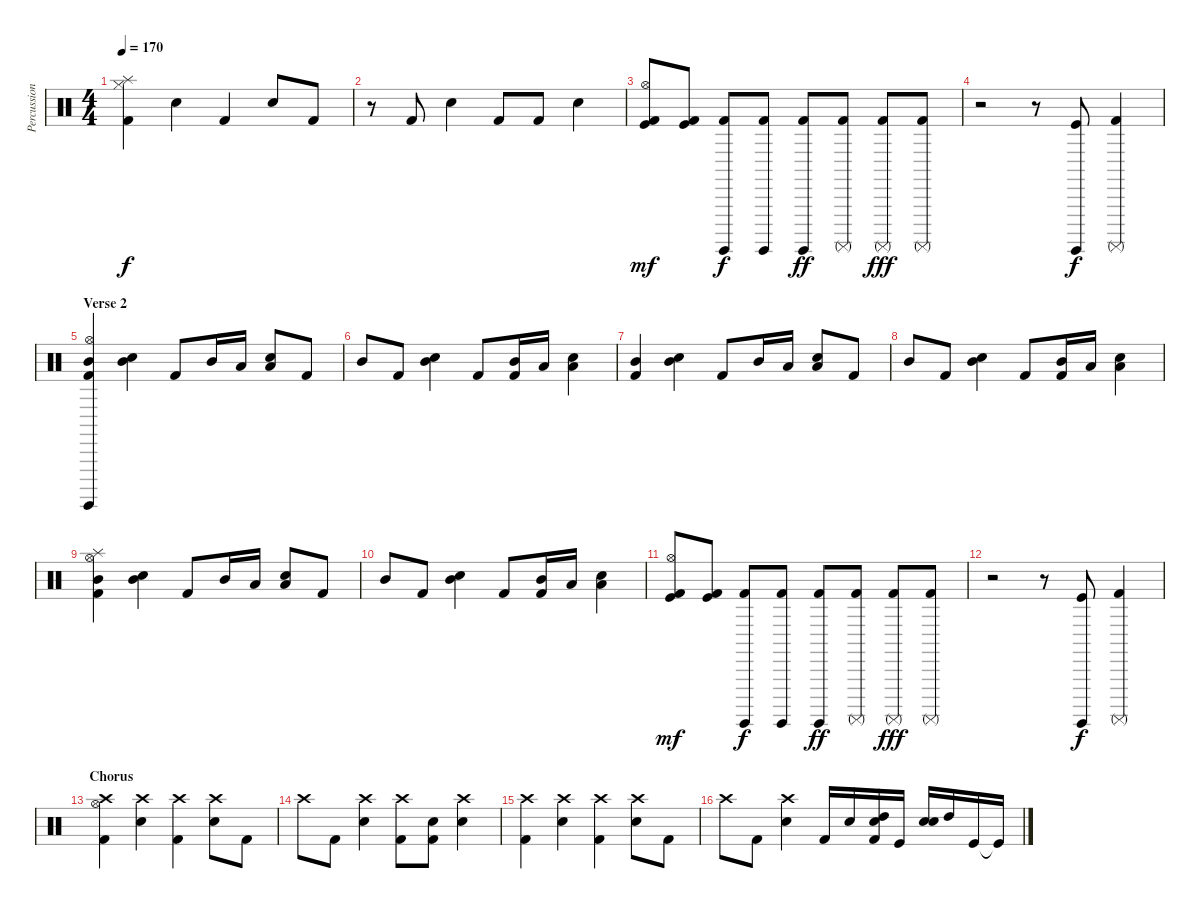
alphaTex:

\track ("Percussion" "Percussion") {instrument percussion}
\staff {score}
\articulation defaults
\ts (4 4)
\tempo 170
\clef neutral
\ks c
("Hi-Hat (closed)"{t} "Splash (hit)"{t} "Kick (hit) 2").4{dy f} "Snare (hit) 2".4 "Kick (hit) 2".4 "Snare (hit) 2".8 "Kick (hit) 2".8 |
r.8 "Kick (hit) 2".8 "Snare (hit) 2".4 "Kick (hit) 2".8 "Kick (hit) 2".8 "Snare (hit) 2".4 |
("Hi-Hat (open)" "Kick (hit)" "Kick (hit) 2").8{dy mf} ("Kick (hit)" "Kick (hit) 2").8 ("Surdo (hit)" "Kick (hit) 2").8{dy f} ("Surdo (hit)" "Kick (hit) 2").8 ("Surdo (hit)" "Kick (hit) 2").8{dy ff} ("Surdo (mute)" "Kick (hit) 2").8 ("Surdo (mute)" "Kick (hit) 2").8{dy fff} ("Surdo (mute)" "Kick (hit) 2").8 |
r.2 r.8 ("Surdo (hit)" "Kick (hit)").8{dy f} ("Surdo (mute)" "Kick (hit) 2").4 |
\section ("" "Verse 2")
("Surdo (hit)" "Mid Tom (hit)" "Hi-Hat (open)" "Kick (hit) 2").4 ("Snare (hit) 2" "Mid Tom (hit)").4 "Kick (hit) 2".8 "Mid Tom (hit)".16 "Low Tom (hit)".16 ("Snare (hit) 2" "Low Floor Tom (hit)").8 "Kick (hit) 2".8 |
"Mid Tom (hit)".8 "Kick (hit) 2".8 ("Snare (hit) 2" "Mid Tom (hit)").4 "Kick (hit) 2".8 ("Mid Tom (hit)" "Kick (hit) 2").16 "Low Tom (hit)".16 ("Snare (hit) 2" "Low Floor Tom (hit)").4 |
("Mid Tom (hit)" "Kick (hit) 2").4 ("Snare (hit) 2" "Mid Tom (hit)").4 "Kick (hit) 2".8 "Mid Tom (hit)".16 "Low Tom (hit)".16 ("Snare (hit) 2" "Low Floor Tom (hit)").8 "Kick (hit) 2".8 |
"Mid Tom (hit)".8 "Kick (hit) 2".8 ("Snare (hit) 2" "Mid Tom (hit)").4 "Kick (hit) 2".8 ("Mid Tom (hit)" "Kick (hit) 2").16 "Low Tom (hit)".16 ("Snare (hit) 2" "Low Floor Tom (hit)").4 |
("Mid Tom (hit)" "Hi-Hat (open)" "Splash (hit)" "Kick (hit) 2").4 ("Snare (hit) 2" "Mid Tom (hit)").4 "Kick (hit) 2".8 "Mid Tom (hit)".16 "Low Tom (hit)".16 ("Snare (hit) 2" "Low Floor Tom (hit)").8 "Kick (hit) 2".8 |
"Mid Tom (hit)".8 "Kick (hit) 2".8 ("Snare (hit) 2" "Mid Tom (hit)").4 "Kick (hit) 2".8 ("Mid Tom (hit)" "Kick (hit) 2").16 "Low Tom (hit)".16 ("Snare (hit) 2" "Low Floor Tom (hit)").4 |
("Hi-Hat (open)" "Kick (hit)" "Kick (hit) 2").8{dy mf} ("Kick (hit)" "Kick (hit) 2").8 ("Surdo (hit)" "Kick (hit) 2").8{dy f} ("Surdo (hit)" "Kick (hit) 2").8 ("Surdo (hit)" "Kick (hit) 2").8{dy ff} ("Surdo (mute)" "Kick (hit) 2").8 ("Surdo (mute)" "Kick (hit) 2").8{dy fff} ("Surdo (mute)" "Kick (hit) 2").8 |
r.2 r.8 ("Surdo (hit)" "Kick (hit)").8{dy f} ("Surdo (mute)" "Kick (hit) 2").4 |
\section ("" "Chorus")
("Crash high (hit)" "Hi-Hat (open)" "Kick (hit) 2").4 ("Hand Clap (hit)" "Crash high (hit)").4 ("Crash high (hit)" "Kick (hit) 2").4 ("Hand Clap (hit)" "Crash high (hit)").8 "Kick (hit) 2".8 |
"Crash high (hit)".8 "Kick (hit) 2".8 ("Hand Clap (hit)" "Crash high (hit)").4 ("Crash high (hit)" "Kick (hit) 2").8 ("Hand Clap (hit)" "Kick (hit) 2").8 ("Hand Clap (hit)" "Crash high (hit)").4 |
("Crash high (hit)" "Kick (hit) 2").4 ("Hand Clap (hit)" "Crash high (hit)").4 ("Crash high (hit)" "Kick (hit) 2").4 ("Hand Clap (hit)" "Crash high (hit)").8 "Kick (hit) 2".8 |
"Crash high (hit)".8 "Kick (hit) 2".8 ("Hand Clap (hit)" "Crash high (hit)").4 "Kick (hit) 2".16 "Electric Snare (hit)".16 ("Hand Clap (hit)" "High Tom (hit)" "Kick (hit) 2").16 "Kick (hit)".16 ("Hand Clap (hit)" "Electric Snare (hit)").16 "High Tom (hit)".16 "Kick (hit)".16 "Kick (hit)"{t}.16
